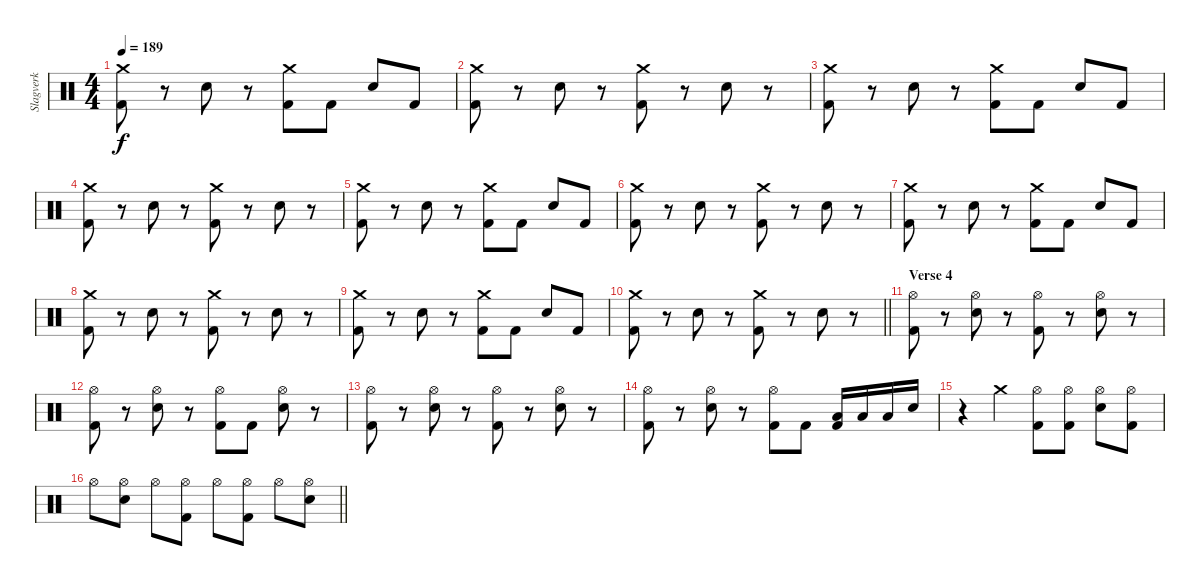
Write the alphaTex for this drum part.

\track ("Slagverk" "Slagverk") {instrument percussion}
\staff {score}
\articulation defaults
\ts (4 4)
\tempo 189
\clef neutral
\ks c
("Crash medium (hit)" "Kick (hit) 2").8{dy f} r.8 "Snare (hit) 2".8 r.8 ("Crash medium (hit)" "Kick (hit) 2").8 "Kick (hit) 2".8 "Snare (hit) 2".8 "Kick (hit) 2".8 |
("Crash medium (hit)" "Kick (hit) 2").8 r.8 "Snare (hit) 2".8 r.8 ("Crash medium (hit)" "Kick (hit) 2").8 r.8 "Snare (hit) 2".8 r.8 |
("Crash medium (hit)" "Kick (hit) 2").8 r.8 "Snare (hit) 2".8 r.8 ("Crash medium (hit)" "Kick (hit) 2").8 "Kick (hit) 2".8 "Snare (hit) 2".8 "Kick (hit) 2".8 |
("Crash medium (hit)" "Kick (hit) 2").8 r.8 "Snare (hit) 2".8 r.8 ("Crash medium (hit)" "Kick (hit) 2").8 r.8 "Snare (hit) 2".8 r.8 |
("Crash medium (hit)" "Kick (hit) 2").8 r.8 "Snare (hit) 2".8 r.8 ("Crash medium (hit)" "Kick (hit) 2").8 "Kick (hit) 2".8 "Snare (hit) 2".8 "Kick (hit) 2".8 |
("Crash medium (hit)" "Kick (hit) 2").8 r.8 "Snare (hit) 2".8 r.8 ("Crash medium (hit)" "Kick (hit) 2").8 r.8 "Snare (hit) 2".8 r.8 |
("Crash medium (hit)" "Kick (hit) 2").8 r.8 "Snare (hit) 2".8 r.8 ("Crash medium (hit)" "Kick (hit) 2").8 "Kick (hit) 2".8 "Snare (hit) 2".8 "Kick (hit) 2".8 |
("Crash medium (hit)" "Kick (hit) 2").8 r.8 "Snare (hit) 2".8 r.8 ("Crash medium (hit)" "Kick (hit) 2").8 r.8 "Snare (hit) 2".8 r.8 |
("Crash medium (hit)" "Kick (hit) 2").8 r.8 "Snare (hit) 2".8 r.8 ("Crash medium (hit)" "Kick (hit) 2").8 "Kick (hit) 2".8 "Snare (hit) 2".8 "Kick (hit) 2".8 |
\barLineRight lightlight
("Crash medium (hit)" "Kick (hit) 2").8 r.8 "Snare (hit) 2".8 r.8 ("Crash medium (hit)" "Kick (hit) 2").8 r.8 "Snare (hit) 2".8 r.8 |
\section ("" "Verse 4")
("Hi-Hat (open)" "Kick (hit) 2").8 r.8 ("Hi-Hat (open)" "Snare (hit) 2").8 r.8 ("Hi-Hat (open)" "Kick (hit) 2").8 r.8 ("Hi-Hat (open)" "Snare (hit) 2").8 r.8 |
("Hi-Hat (open)" "Kick (hit) 2").8 r.8 ("Hi-Hat (open)" "Snare (hit) 2").8 r.8 ("Hi-Hat (open)" "Kick (hit) 2").8 "Kick (hit) 2".8 ("Hi-Hat (open)" "Snare (hit) 2").8 r.8 |
("Hi-Hat (open)" "Kick (hit) 2").8 r.8 ("Hi-Hat (open)" "Snare (hit) 2").8 r.8 ("Hi-Hat (open)" "Kick (hit) 2").8 r.8 ("Hi-Hat (open)" "Snare (hit) 2").8 r.8 |
("Hi-Hat (open)" "Kick (hit) 2").8 r.8 ("Hi-Hat (open)" "Snare (hit) 2").8 r.8 ("Hi-Hat (open)" "Kick (hit) 2").8 "Kick (hit) 2".8 ("Low Tom (hit)" "Kick (hit) 2").16 "Low Tom (hit)".16 "Low Tom (hit)".16 "Snare (hit) 2".16 |
r.4 "Crash medium (hit)".4 ("Hi-Hat (open)" "Kick (hit) 2").8 ("Hi-Hat (open)" "Kick (hit) 2").8 ("Hi-Hat (open)" "Snare (hit) 2").8 ("Hi-Hat (open)" "Kick (hit) 2").8 |
\barLineRight lightlight "Hi-Hat (open)".8
("Hi-Hat (open)" "Snare (hit) 2").8 "Hi-Hat (open)".8 ("Hi-Hat (open)" "Kick (hit) 2").8 "Hi-Hat (open)".8 ("Hi-Hat (open)" "Kick (hit) 2").8 "Hi-Hat (open)".8 ("Hi-Hat (open)" "Snare (hit) 2").8
